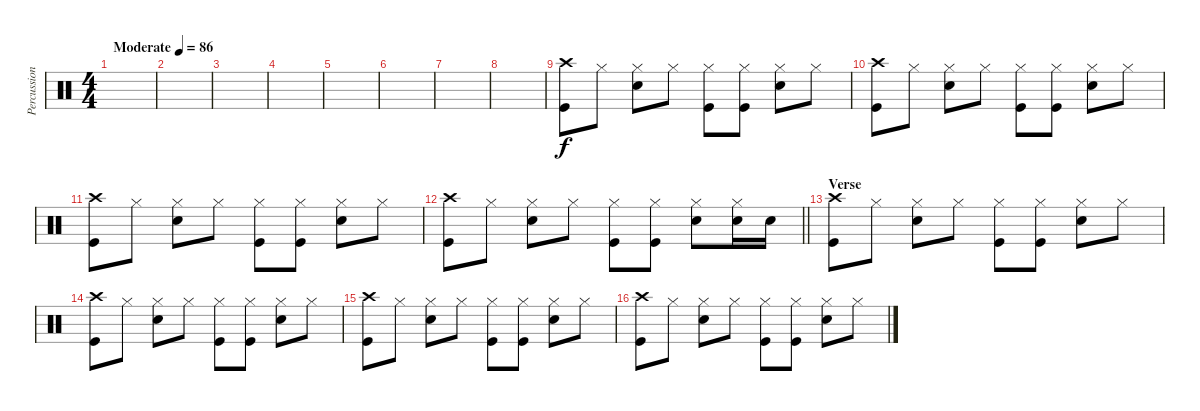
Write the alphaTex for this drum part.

\track ("Percussion" "Percussion") {instrument percussion}
\staff {score}
\articulation defaults
\ts (4 4)
\tempo (86 "Moderate")
\clef neutral
\ks c
|
|
|
|
|
|
|
|
("Crash high (hit)" "Kick (hit)").8 "Hi-Hat (closed)".8 ("Hi-Hat (closed)" "Electric Snare (hit)").8 "Hi-Hat (closed)".8 ("Hi-Hat (closed)" "Kick (hit)").8 ("Hi-Hat (closed)" "Kick (hit)").8 ("Hi-Hat (closed)" "Electric Snare (hit)").8 "Hi-Hat (closed)".8 |
("Crash high (hit)" "Kick (hit)").8 "Hi-Hat (closed)".8 ("Hi-Hat (closed)" "Electric Snare (hit)").8 "Hi-Hat (closed)".8 ("Hi-Hat (closed)" "Kick (hit)").8 ("Hi-Hat (closed)" "Kick (hit)").8 ("Hi-Hat (closed)" "Electric Snare (hit)").8 "Hi-Hat (closed)".8 |
("Crash high (hit)" "Kick (hit)").8 "Hi-Hat (closed)".8 ("Hi-Hat (closed)" "Electric Snare (hit)").8 "Hi-Hat (closed)".8 ("Hi-Hat (closed)" "Kick (hit)").8 ("Hi-Hat (closed)" "Kick (hit)").8 ("Hi-Hat (closed)" "Electric Snare (hit)").8 "Hi-Hat (closed)".8 |
\barLineRight lightlight
("Crash high (hit)" "Kick (hit)").8 "Hi-Hat (closed)".8 ("Hi-Hat (closed)" "Electric Snare (hit)").8 "Hi-Hat (closed)".8 ("Hi-Hat (closed)" "Kick (hit)").8 ("Hi-Hat (closed)" "Kick (hit)").8 ("Hi-Hat (closed)" "Electric Snare (hit)").8 ("Hi-Hat (closed)" "Electric Snare (hit)").16 "Electric Snare (hit)".16 |
\section ("" "Verse")
("Crash high (hit)" "Kick (hit)").8 "Hi-Hat (closed)".8 ("Hi-Hat (closed)" "Electric Snare (hit)").8 "Hi-Hat (closed)".8 ("Hi-Hat (closed)" "Kick (hit)").8 ("Hi-Hat (closed)" "Kick (hit)").8 ("Hi-Hat (closed)" "Electric Snare (hit)").8 "Hi-Hat (closed)".8 |
("Crash high (hit)" "Kick (hit)").8 "Hi-Hat (closed)".8 ("Hi-Hat (closed)" "Electric Snare (hit)").8 "Hi-Hat (closed)".8 ("Hi-Hat (closed)" "Kick (hit)").8 ("Hi-Hat (closed)" "Kick (hit)").8 ("Hi-Hat (closed)" "Electric Snare (hit)").8 "Hi-Hat (closed)".8 |
("Crash high (hit)" "Kick (hit)").8 "Hi-Hat (closed)".8 ("Hi-Hat (closed)" "Electric Snare (hit)").8 "Hi-Hat (closed)".8 ("Hi-Hat (closed)" "Kick (hit)").8 ("Hi-Hat (closed)" "Kick (hit)").8 ("Hi-Hat (closed)" "Electric Snare (hit)").8 "Hi-Hat (closed)".8 |
("Crash high (hit)" "Kick (hit)").8 "Hi-Hat (closed)".8 ("Hi-Hat (closed)" "Electric Snare (hit)").8 "Hi-Hat (closed)".8 ("Hi-Hat (closed)" "Kick (hit)").8 ("Hi-Hat (closed)" "Kick (hit)").8 ("Hi-Hat (closed)" "Electric Snare (hit)").8 "Hi-Hat (closed)".8
